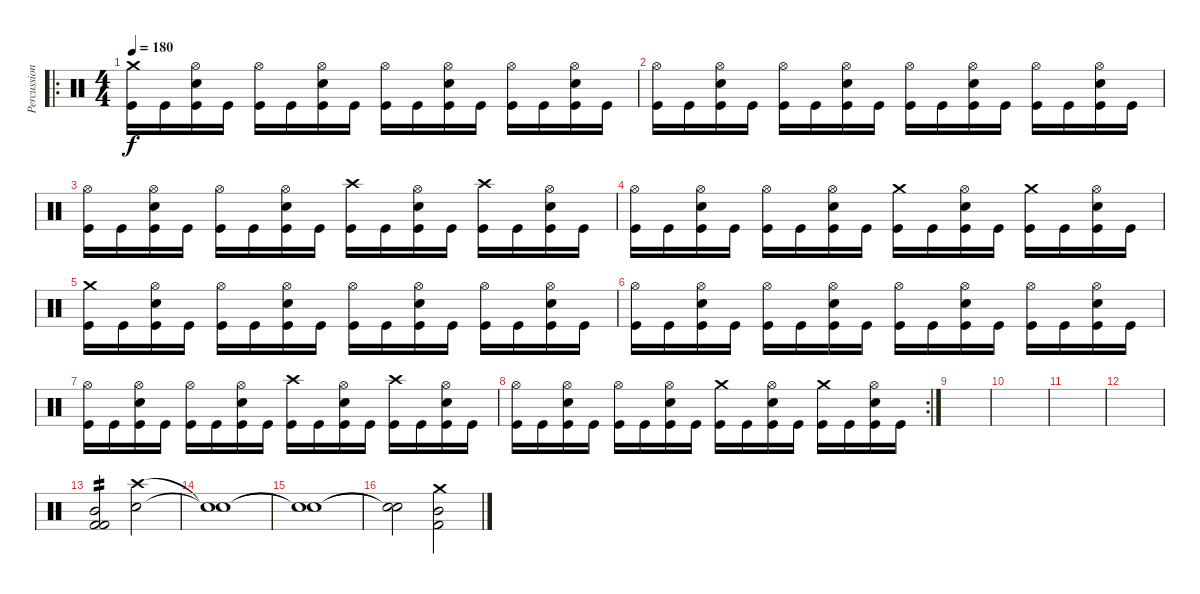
\track ("Percussions" "Percussion") {instrument percussion}
\staff {score}
\articulation defaults
\ro
\ts (4 4)
\tempo 180
\clef neutral
\ks c
("Kick (hit)" "Crash medium (hit)").16{dy f} "Kick (hit)".16 ("Kick (hit)" "Electric Snare (hit)" "Hi-Hat (open)").16 "Kick (hit)".16 ("Kick (hit)" "Hi-Hat (open)").16 "Kick (hit)".16 ("Kick (hit)" "Electric Snare (hit)" "Hi-Hat (open)").16 "Kick (hit)".16 ("Kick (hit)" "Hi-Hat (open)").16 "Kick (hit)".16 ("Kick (hit)" "Electric Snare (hit)" "Hi-Hat (open)").16 "Kick (hit)".16 ("Kick (hit)" "Hi-Hat (open)").16 "Kick (hit)".16 ("Kick (hit)" "Electric Snare (hit)" "Hi-Hat (open)").16 "Kick (hit)".16 |
("Kick (hit)" "Hi-Hat (open)").16 "Kick (hit)".16 ("Kick (hit)" "Electric Snare (hit)" "Hi-Hat (open)").16 "Kick (hit)".16 ("Kick (hit)" "Hi-Hat (open)").16 "Kick (hit)".16 ("Kick (hit)" "Electric Snare (hit)" "Hi-Hat (open)").16 "Kick (hit)".16 ("Kick (hit)" "Hi-Hat (open)").16 "Kick (hit)".16 ("Kick (hit)" "Electric Snare (hit)" "Hi-Hat (open)").16 "Kick (hit)".16 ("Kick (hit)" "Hi-Hat (open)").16 "Kick (hit)".16 ("Kick (hit)" "Electric Snare (hit)" "Hi-Hat (open)").16 "Kick (hit)".16 |
("Kick (hit)" "Hi-Hat (open)").16 "Kick (hit)".16 ("Kick (hit)" "Electric Snare (hit)" "Hi-Hat (open)").16 "Kick (hit)".16 ("Kick (hit)" "Hi-Hat (open)").16 "Kick (hit)".16 ("Kick (hit)" "Electric Snare (hit)" "Hi-Hat (open)").16 "Kick (hit)".16 ("Kick (hit)" "Crash high (hit)").16 "Kick (hit)".16 ("Kick (hit)" "Electric Snare (hit)" "Hi-Hat (open)").16 "Kick (hit)".16 ("Kick (hit)" "Crash high (hit)").16 "Kick (hit)".16 ("Kick (hit)" "Electric Snare (hit)" "Hi-Hat (open)").16 "Kick (hit)".16 |
("Kick (hit)" "Hi-Hat (open)").16 "Kick (hit)".16 ("Kick (hit)" "Electric Snare (hit)" "Hi-Hat (open)").16 "Kick (hit)".16 ("Kick (hit)" "Hi-Hat (open)").16 "Kick (hit)".16 ("Kick (hit)" "Electric Snare (hit)" "Hi-Hat (open)").16 "Kick (hit)".16 ("Kick (hit)" "Crash medium (hit)").16 "Kick (hit)".16 ("Kick (hit)" "Electric Snare (hit)" "Hi-Hat (open)").16 "Kick (hit)".16 ("Kick (hit)" "Crash medium (hit)").16 "Kick (hit)".16 ("Kick (hit)" "Electric Snare (hit)" "Hi-Hat (open)").16 "Kick (hit)".16 |
("Kick (hit)" "Crash medium (hit)").16 "Kick (hit)".16 ("Kick (hit)" "Electric Snare (hit)" "Hi-Hat (open)").16 "Kick (hit)".16 ("Kick (hit)" "Hi-Hat (open)").16 "Kick (hit)".16 ("Kick (hit)" "Electric Snare (hit)" "Hi-Hat (open)").16 "Kick (hit)".16 ("Kick (hit)" "Hi-Hat (open)").16 "Kick (hit)".16 ("Kick (hit)" "Electric Snare (hit)" "Hi-Hat (open)").16 "Kick (hit)".16 ("Kick (hit)" "Hi-Hat (open)").16 "Kick (hit)".16 ("Kick (hit)" "Electric Snare (hit)" "Hi-Hat (open)").16 "Kick (hit)".16 |
("Kick (hit)" "Hi-Hat (open)").16 "Kick (hit)".16 ("Kick (hit)" "Electric Snare (hit)" "Hi-Hat (open)").16 "Kick (hit)".16 ("Kick (hit)" "Hi-Hat (open)").16 "Kick (hit)".16 ("Kick (hit)" "Electric Snare (hit)" "Hi-Hat (open)").16 "Kick (hit)".16 ("Kick (hit)" "Hi-Hat (open)").16 "Kick (hit)".16 ("Kick (hit)" "Electric Snare (hit)" "Hi-Hat (open)").16 "Kick (hit)".16 ("Kick (hit)" "Hi-Hat (open)").16 "Kick (hit)".16 ("Kick (hit)" "Electric Snare (hit)" "Hi-Hat (open)").16 "Kick (hit)".16 |
("Kick (hit)" "Hi-Hat (open)").16 "Kick (hit)".16 ("Kick (hit)" "Electric Snare (hit)" "Hi-Hat (open)").16 "Kick (hit)".16 ("Kick (hit)" "Hi-Hat (open)").16 "Kick (hit)".16 ("Kick (hit)" "Electric Snare (hit)" "Hi-Hat (open)").16 "Kick (hit)".16 ("Kick (hit)" "Crash high (hit)").16 "Kick (hit)".16 ("Kick (hit)" "Electric Snare (hit)" "Hi-Hat (open)").16 "Kick (hit)".16 ("Kick (hit)" "Crash high (hit)").16 "Kick (hit)".16 ("Kick (hit)" "Electric Snare (hit)" "Hi-Hat (open)").16 "Kick (hit)".16 |
\rc 2
("Kick (hit)" "Hi-Hat (open)").16 "Kick (hit)".16 ("Kick (hit)" "Electric Snare (hit)" "Hi-Hat (open)").16 "Kick (hit)".16 ("Kick (hit)" "Hi-Hat (open)").16 "Kick (hit)".16 ("Kick (hit)" "Electric Snare (hit)" "Hi-Hat (open)").16 "Kick (hit)".16 ("Kick (hit)" "Crash medium (hit)").16 "Kick (hit)".16 ("Kick (hit)" "Electric Snare (hit)" "Hi-Hat (open)").16 "Kick (hit)".16 ("Kick (hit)" "Crash medium (hit)").16 "Kick (hit)".16 ("Kick (hit)" "Electric Snare (hit)" "Hi-Hat (open)").16 "Kick (hit)".16 |
|
|
|
|
("Mid Tom (hit)" "Kick (hit) 2" "Kick (hit) 2").2{tp 2} ("Crash high (hit)" "Electric Snare (hit)").2 |
("Snare (hit)"{t} "Snare (hit)"{t}).1 |
("Snare (hit)"{t} "Snare (hit)"{t}).1 |
("Snare (hit)"{t} "Snare (hit)"{t}).2 ("Crash medium (hit)" "Mid Tom (hit)" "Kick (hit) 2").2
